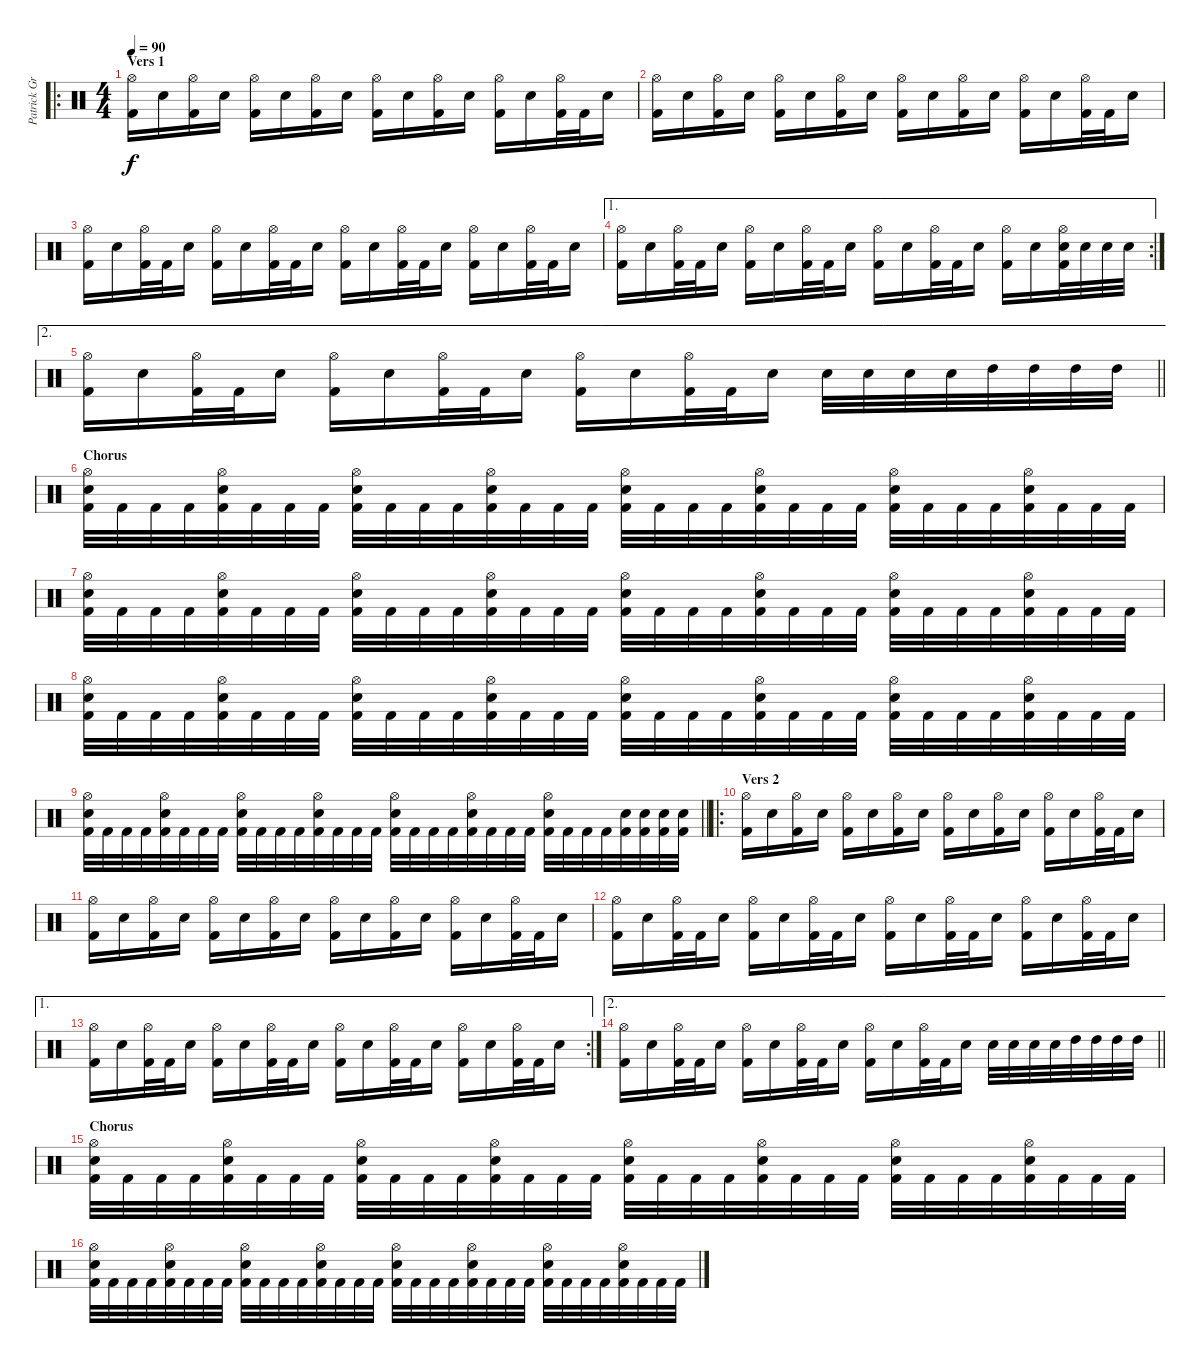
\track ("Patrick Grün - Drums" "Patrick Gr") {instrument percussion}
\staff {score}
\articulation defaults
\ro
\ts (4 4)
\section ("" "Vers 1")
\tempo 90
\clef neutral
\ks c
("Hi-Hat (open)" "Kick (hit) 2").16{dy f} "Electric Snare (hit)".16 ("Hi-Hat (open)" "Kick (hit) 2").16 "Electric Snare (hit)".16 ("Hi-Hat (open)" "Kick (hit) 2").16 "Electric Snare (hit)".16 ("Hi-Hat (open)" "Kick (hit) 2").16 "Electric Snare (hit)".16 ("Hi-Hat (open)" "Kick (hit) 2").16 "Electric Snare (hit)".16 ("Hi-Hat (open)" "Kick (hit) 2").16 "Electric Snare (hit)".16 ("Hi-Hat (open)" "Kick (hit) 2").16 "Electric Snare (hit)".16 ("Hi-Hat (open)" "Kick (hit) 2").32 "Kick (hit) 2".32 "Electric Snare (hit)".16 |
("Hi-Hat (open)" "Kick (hit) 2").16 "Electric Snare (hit)".16 ("Hi-Hat (open)" "Kick (hit) 2").16 "Electric Snare (hit)".16 ("Hi-Hat (open)" "Kick (hit) 2").16 "Electric Snare (hit)".16 ("Hi-Hat (open)" "Kick (hit) 2").16 "Electric Snare (hit)".16 ("Hi-Hat (open)" "Kick (hit) 2").16 "Electric Snare (hit)".16 ("Hi-Hat (open)" "Kick (hit) 2").16 "Electric Snare (hit)".16 ("Hi-Hat (open)" "Kick (hit) 2").16 "Electric Snare (hit)".16 ("Hi-Hat (open)" "Kick (hit) 2").32 "Kick (hit) 2".32 "Electric Snare (hit)".16 |
("Hi-Hat (open)" "Kick (hit) 2").16 "Electric Snare (hit)".16 ("Hi-Hat (open)" "Kick (hit) 2").32 "Kick (hit) 2".32 "Electric Snare (hit)".16 ("Hi-Hat (open)" "Kick (hit) 2").16 "Electric Snare (hit)".16 ("Hi-Hat (open)" "Kick (hit) 2").32 "Kick (hit) 2".32 "Electric Snare (hit)".16 ("Hi-Hat (open)" "Kick (hit) 2").16 "Electric Snare (hit)".16 ("Hi-Hat (open)" "Kick (hit) 2").32 "Kick (hit) 2".32 "Electric Snare (hit)".16 ("Hi-Hat (open)" "Kick (hit) 2").16 "Electric Snare (hit)".16 ("Hi-Hat (open)" "Kick (hit) 2").32 "Kick (hit) 2".32 "Electric Snare (hit)".16 |
\ae 1
\rc 2
("Hi-Hat (open)" "Kick (hit) 2").16 "Electric Snare (hit)".16 ("Hi-Hat (open)" "Kick (hit) 2").32 "Kick (hit) 2".32 "Electric Snare (hit)".16 ("Hi-Hat (open)" "Kick (hit) 2").16 "Electric Snare (hit)".16 ("Hi-Hat (open)" "Kick (hit) 2").32 "Kick (hit) 2".32 "Electric Snare (hit)".16 ("Hi-Hat (open)" "Kick (hit) 2").16 "Electric Snare (hit)".16 ("Hi-Hat (open)" "Kick (hit) 2").32 "Kick (hit) 2".32 "Electric Snare (hit)".16 ("Hi-Hat (open)" "Kick (hit) 2").16 "Electric Snare (hit)".16 ("Hi-Hat (open)" "Electric Snare (hit)" "Kick (hit) 2").32 "Electric Snare (hit)".32 "Electric Snare (hit)".32 "Electric Snare (hit)".32 |
\ae 2
\barLineRight lightlight
("Hi-Hat (open)" "Kick (hit) 2").16 "Electric Snare (hit)".16 ("Hi-Hat (open)" "Kick (hit) 2").32 "Kick (hit) 2".32 "Electric Snare (hit)".16 ("Hi-Hat (open)" "Kick (hit) 2").16 "Electric Snare (hit)".16 ("Hi-Hat (open)" "Kick (hit) 2").32 "Kick (hit) 2".32 "Electric Snare (hit)".16 ("Hi-Hat (open)" "Kick (hit) 2").16 "Electric Snare (hit)".16 ("Hi-Hat (open)" "Kick (hit) 2").32 "Kick (hit) 2".32 "Electric Snare (hit)".16 "Electric Snare (hit)".32 "Electric Snare (hit)".32 "Electric Snare (hit)".32 "Electric Snare (hit)".32 "High Tom (hit)".32 "High Tom (hit)".32 "High Tom (hit)".32 "High Tom (hit)".32 |
\section ("" "Chorus")
("Hi-Hat (open)" "Electric Snare (hit)" "Kick (hit) 2").32 "Kick (hit) 2".32 "Kick (hit) 2".32 "Kick (hit) 2".32 ("Hi-Hat (open)" "Electric Snare (hit)" "Kick (hit) 2").32 "Kick (hit) 2".32 "Kick (hit) 2".32 "Kick (hit) 2".32 ("Hi-Hat (open)" "Electric Snare (hit)" "Kick (hit) 2").32 "Kick (hit) 2".32 "Kick (hit) 2".32 "Kick (hit) 2".32 ("Hi-Hat (open)" "Electric Snare (hit)" "Kick (hit) 2").32 "Kick (hit) 2".32 "Kick (hit) 2".32 "Kick (hit) 2".32 ("Hi-Hat (open)" "Electric Snare (hit)" "Kick (hit) 2").32 "Kick (hit) 2".32 "Kick (hit) 2".32 "Kick (hit) 2".32 ("Hi-Hat (open)" "Electric Snare (hit)" "Kick (hit) 2").32 "Kick (hit) 2".32 "Kick (hit) 2".32 "Kick (hit) 2".32 ("Hi-Hat (open)" "Electric Snare (hit)" "Kick (hit) 2").32 "Kick (hit) 2".32 "Kick (hit) 2".32 "Kick (hit) 2".32 ("Hi-Hat (open)" "Electric Snare (hit)" "Kick (hit) 2").32 "Kick (hit) 2".32 "Kick (hit) 2".32 "Kick (hit) 2".32 |
("Hi-Hat (open)" "Electric Snare (hit)" "Kick (hit) 2").32 "Kick (hit) 2".32 "Kick (hit) 2".32 "Kick (hit) 2".32 ("Hi-Hat (open)" "Electric Snare (hit)" "Kick (hit) 2").32 "Kick (hit) 2".32 "Kick (hit) 2".32 "Kick (hit) 2".32 ("Hi-Hat (open)" "Electric Snare (hit)" "Kick (hit) 2").32 "Kick (hit) 2".32 "Kick (hit) 2".32 "Kick (hit) 2".32 ("Hi-Hat (open)" "Electric Snare (hit)" "Kick (hit) 2").32 "Kick (hit) 2".32 "Kick (hit) 2".32 "Kick (hit) 2".32 ("Hi-Hat (open)" "Electric Snare (hit)" "Kick (hit) 2").32 "Kick (hit) 2".32 "Kick (hit) 2".32 "Kick (hit) 2".32 ("Hi-Hat (open)" "Electric Snare (hit)" "Kick (hit) 2").32 "Kick (hit) 2".32 "Kick (hit) 2".32 "Kick (hit) 2".32 ("Hi-Hat (open)" "Electric Snare (hit)" "Kick (hit) 2").32 "Kick (hit) 2".32 "Kick (hit) 2".32 "Kick (hit) 2".32 ("Hi-Hat (open)" "Electric Snare (hit)" "Kick (hit) 2").32 "Kick (hit) 2".32 "Kick (hit) 2".32 "Kick (hit) 2".32 |
("Hi-Hat (open)" "Electric Snare (hit)" "Kick (hit) 2").32 "Kick (hit) 2".32 "Kick (hit) 2".32 "Kick (hit) 2".32 ("Hi-Hat (open)" "Electric Snare (hit)" "Kick (hit) 2").32 "Kick (hit) 2".32 "Kick (hit) 2".32 "Kick (hit) 2".32 ("Hi-Hat (open)" "Electric Snare (hit)" "Kick (hit) 2").32 "Kick (hit) 2".32 "Kick (hit) 2".32 "Kick (hit) 2".32 ("Hi-Hat (open)" "Electric Snare (hit)" "Kick (hit) 2").32 "Kick (hit) 2".32 "Kick (hit) 2".32 "Kick (hit) 2".32 ("Hi-Hat (open)" "Electric Snare (hit)" "Kick (hit) 2").32 "Kick (hit) 2".32 "Kick (hit) 2".32 "Kick (hit) 2".32 ("Hi-Hat (open)" "Electric Snare (hit)" "Kick (hit) 2").32 "Kick (hit) 2".32 "Kick (hit) 2".32 "Kick (hit) 2".32 ("Hi-Hat (open)" "Electric Snare (hit)" "Kick (hit) 2").32 "Kick (hit) 2".32 "Kick (hit) 2".32 "Kick (hit) 2".32 ("Hi-Hat (open)" "Electric Snare (hit)" "Kick (hit) 2").32 "Kick (hit) 2".32 "Kick (hit) 2".32 "Kick (hit) 2".32 |
\barLineRight lightlight
("Hi-Hat (open)" "Electric Snare (hit)" "Kick (hit) 2").32 "Kick (hit) 2".32 "Kick (hit) 2".32 "Kick (hit) 2".32 ("Hi-Hat (open)" "Electric Snare (hit)" "Kick (hit) 2").32 "Kick (hit) 2".32 "Kick (hit) 2".32 "Kick (hit) 2".32 ("Hi-Hat (open)" "Electric Snare (hit)" "Kick (hit) 2").32 "Kick (hit) 2".32 "Kick (hit) 2".32 "Kick (hit) 2".32 ("Hi-Hat (open)" "Electric Snare (hit)" "Kick (hit) 2").32 "Kick (hit) 2".32 "Kick (hit) 2".32 "Kick (hit) 2".32 ("Hi-Hat (open)" "Electric Snare (hit)" "Kick (hit) 2").32 "Kick (hit) 2".32 "Kick (hit) 2".32 "Kick (hit) 2".32 ("Hi-Hat (open)" "Electric Snare (hit)" "Kick (hit) 2").32 "Kick (hit) 2".32 "Kick (hit) 2".32 "Kick (hit) 2".32 ("Hi-Hat (open)" "Electric Snare (hit)" "Kick (hit) 2").32 "Kick (hit) 2".32 "Kick (hit) 2".32 "Kick (hit) 2".32 ("Electric Snare (hit)" "Kick (hit) 2").32 ("Electric Snare (hit)" "Kick (hit) 2").32 ("Electric Snare (hit)" "Kick (hit) 2").32 ("Electric Snare (hit)" "Kick (hit) 2").32 |
\ro
\section ("" "Vers 2")
("Hi-Hat (open)" "Kick (hit) 2").16 "Electric Snare (hit)".16 ("Hi-Hat (open)" "Kick (hit) 2").16 "Electric Snare (hit)".16 ("Hi-Hat (open)" "Kick (hit) 2").16 "Electric Snare (hit)".16 ("Hi-Hat (open)" "Kick (hit) 2").16 "Electric Snare (hit)".16 ("Hi-Hat (open)" "Kick (hit) 2").16 "Electric Snare (hit)".16 ("Hi-Hat (open)" "Kick (hit) 2").16 "Electric Snare (hit)".16 ("Hi-Hat (open)" "Kick (hit) 2").16 "Electric Snare (hit)".16 ("Hi-Hat (open)" "Kick (hit) 2").32 "Kick (hit) 2".32 "Electric Snare (hit)".16 |
("Hi-Hat (open)" "Kick (hit) 2").16 "Electric Snare (hit)".16 ("Hi-Hat (open)" "Kick (hit) 2").16 "Electric Snare (hit)".16 ("Hi-Hat (open)" "Kick (hit) 2").16 "Electric Snare (hit)".16 ("Hi-Hat (open)" "Kick (hit) 2").16 "Electric Snare (hit)".16 ("Hi-Hat (open)" "Kick (hit) 2").16 "Electric Snare (hit)".16 ("Hi-Hat (open)" "Kick (hit) 2").16 "Electric Snare (hit)".16 ("Hi-Hat (open)" "Kick (hit) 2").16 "Electric Snare (hit)".16 ("Hi-Hat (open)" "Kick (hit) 2").32 "Kick (hit) 2".32 "Electric Snare (hit)".16 |
("Hi-Hat (open)" "Kick (hit) 2").16 "Electric Snare (hit)".16 ("Hi-Hat (open)" "Kick (hit) 2").32 "Kick (hit) 2".32 "Electric Snare (hit)".16 ("Hi-Hat (open)" "Kick (hit) 2").16 "Electric Snare (hit)".16 ("Hi-Hat (open)" "Kick (hit) 2").32 "Kick (hit) 2".32 "Electric Snare (hit)".16 ("Hi-Hat (open)" "Kick (hit) 2").16 "Electric Snare (hit)".16 ("Hi-Hat (open)" "Kick (hit) 2").32 "Kick (hit) 2".32 "Electric Snare (hit)".16 ("Hi-Hat (open)" "Kick (hit) 2").16 "Electric Snare (hit)".16 ("Hi-Hat (open)" "Kick (hit) 2").32 "Kick (hit) 2".32 "Electric Snare (hit)".16 |
\ae 1
\rc 2
("Hi-Hat (open)" "Kick (hit) 2").16 "Electric Snare (hit)".16 ("Hi-Hat (open)" "Kick (hit) 2").32 "Kick (hit) 2".32 "Electric Snare (hit)".16 ("Hi-Hat (open)" "Kick (hit) 2").16 "Electric Snare (hit)".16 ("Hi-Hat (open)" "Kick (hit) 2").32 "Kick (hit) 2".32 "Electric Snare (hit)".16 ("Hi-Hat (open)" "Kick (hit) 2").16 "Electric Snare (hit)".16 ("Hi-Hat (open)" "Kick (hit) 2").32 "Kick (hit) 2".32 "Electric Snare (hit)".16 ("Hi-Hat (open)" "Kick (hit) 2").16 "Electric Snare (hit)".16 ("Hi-Hat (open)" "Kick (hit) 2").32 "Kick (hit) 2".32 "Electric Snare (hit)".16 |
\ae 2
\barLineRight lightlight
("Hi-Hat (open)" "Kick (hit) 2").16 "Electric Snare (hit)".16 ("Hi-Hat (open)" "Kick (hit) 2").32 "Kick (hit) 2".32 "Electric Snare (hit)".16 ("Hi-Hat (open)" "Kick (hit) 2").16 "Electric Snare (hit)".16 ("Hi-Hat (open)" "Kick (hit) 2").32 "Kick (hit) 2".32 "Electric Snare (hit)".16 ("Hi-Hat (open)" "Kick (hit) 2").16 "Electric Snare (hit)".16 ("Hi-Hat (open)" "Kick (hit) 2").32 "Kick (hit) 2".32 "Electric Snare (hit)".16 "Electric Snare (hit)".32 "Electric Snare (hit)".32 "Electric Snare (hit)".32 "Electric Snare (hit)".32 "High Tom (hit)".32 "High Tom (hit)".32 "High Tom (hit)".32 "High Tom (hit)".32 |
\section ("" "Chorus")
("Hi-Hat (open)" "Electric Snare (hit)" "Kick (hit) 2").32 "Kick (hit) 2".32 "Kick (hit) 2".32 "Kick (hit) 2".32 ("Hi-Hat (open)" "Electric Snare (hit)" "Kick (hit) 2").32 "Kick (hit) 2".32 "Kick (hit) 2".32 "Kick (hit) 2".32 ("Hi-Hat (open)" "Electric Snare (hit)" "Kick (hit) 2").32 "Kick (hit) 2".32 "Kick (hit) 2".32 "Kick (hit) 2".32 ("Hi-Hat (open)" "Electric Snare (hit)" "Kick (hit) 2").32 "Kick (hit) 2".32 "Kick (hit) 2".32 "Kick (hit) 2".32 ("Hi-Hat (open)" "Electric Snare (hit)" "Kick (hit) 2").32 "Kick (hit) 2".32 "Kick (hit) 2".32 "Kick (hit) 2".32 ("Hi-Hat (open)" "Electric Snare (hit)" "Kick (hit) 2").32 "Kick (hit) 2".32 "Kick (hit) 2".32 "Kick (hit) 2".32 ("Hi-Hat (open)" "Electric Snare (hit)" "Kick (hit) 2").32 "Kick (hit) 2".32 "Kick (hit) 2".32 "Kick (hit) 2".32 ("Hi-Hat (open)" "Electric Snare (hit)" "Kick (hit) 2").32 "Kick (hit) 2".32 "Kick (hit) 2".32 "Kick (hit) 2".32 |
("Hi-Hat (open)" "Electric Snare (hit)" "Kick (hit) 2").32 "Kick (hit) 2".32 "Kick (hit) 2".32 "Kick (hit) 2".32 ("Hi-Hat (open)" "Electric Snare (hit)" "Kick (hit) 2").32 "Kick (hit) 2".32 "Kick (hit) 2".32 "Kick (hit) 2".32 ("Hi-Hat (open)" "Electric Snare (hit)" "Kick (hit) 2").32 "Kick (hit) 2".32 "Kick (hit) 2".32 "Kick (hit) 2".32 ("Hi-Hat (open)" "Electric Snare (hit)" "Kick (hit) 2").32 "Kick (hit) 2".32 "Kick (hit) 2".32 "Kick (hit) 2".32 ("Hi-Hat (open)" "Electric Snare (hit)" "Kick (hit) 2").32 "Kick (hit) 2".32 "Kick (hit) 2".32 "Kick (hit) 2".32 ("Hi-Hat (open)" "Electric Snare (hit)" "Kick (hit) 2").32 "Kick (hit) 2".32 "Kick (hit) 2".32 "Kick (hit) 2".32 ("Hi-Hat (open)" "Electric Snare (hit)" "Kick (hit) 2").32 "Kick (hit) 2".32 "Kick (hit) 2".32 "Kick (hit) 2".32 ("Hi-Hat (open)" "Electric Snare (hit)" "Kick (hit) 2").32 "Kick (hit) 2".32 "Kick (hit) 2".32 "Kick (hit) 2".32
